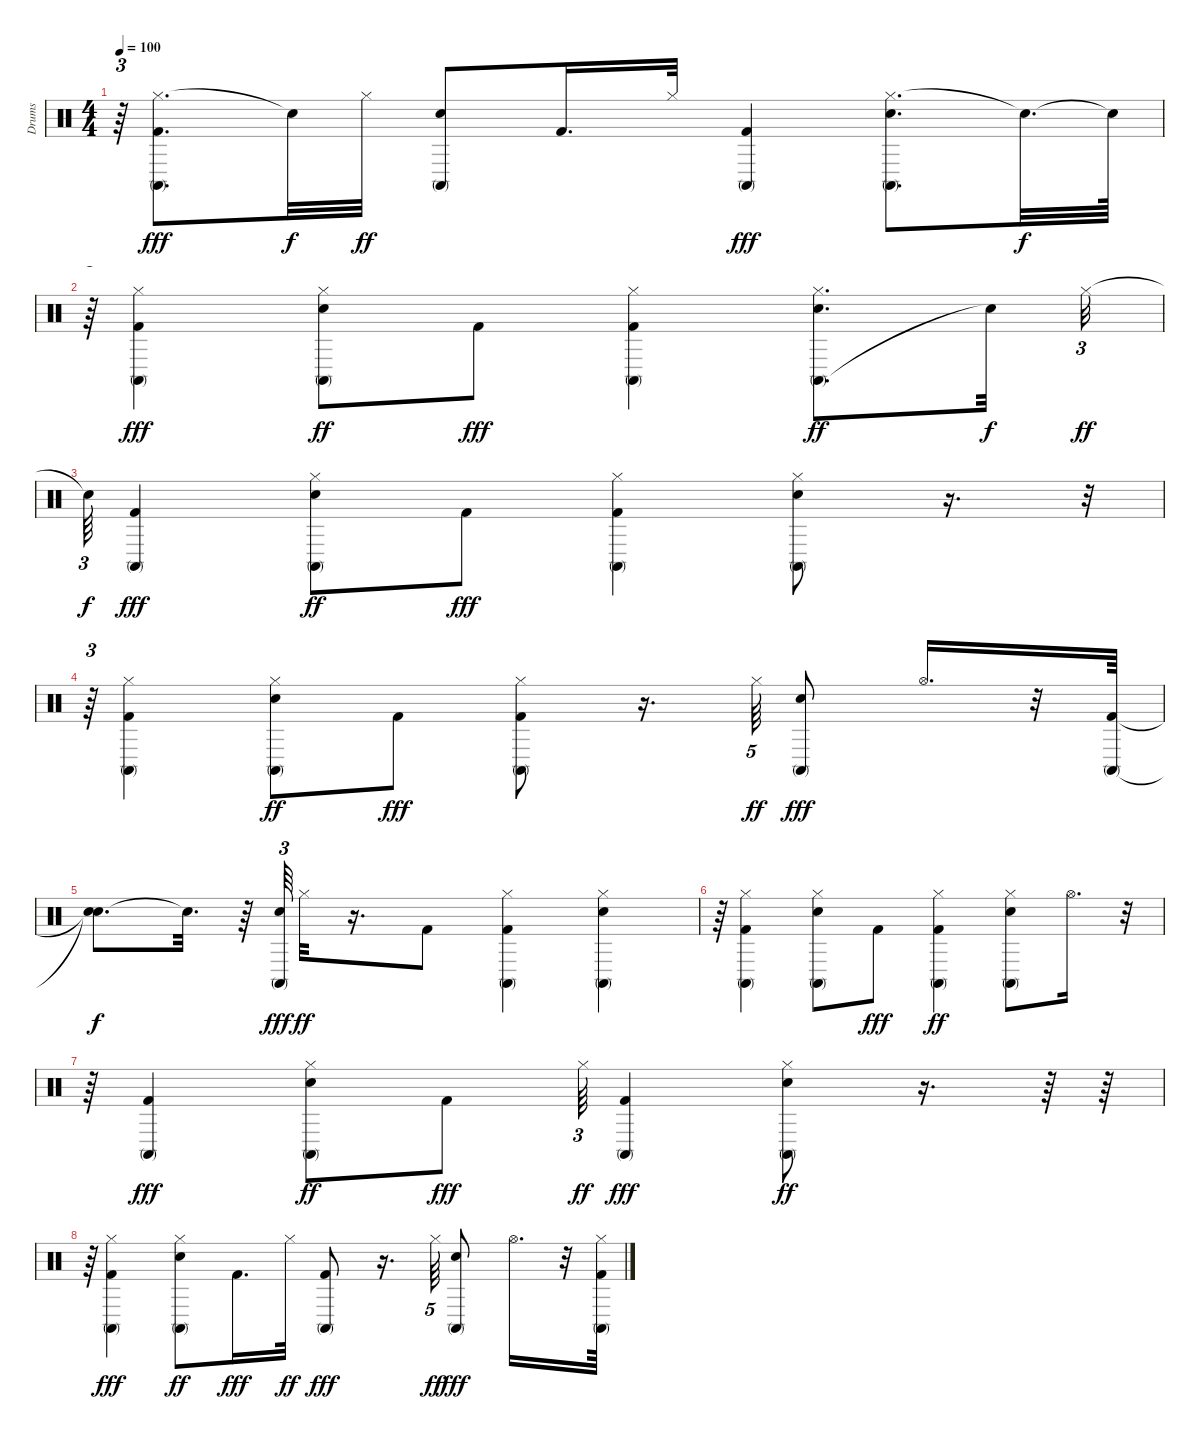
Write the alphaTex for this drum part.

\track ("Drums" "Drums") {instrument percussion}
\staff {score}
\articulation defaults
\ts (4 4)
\tempo 100
\clef neutral
\ks c
r.64{tu (3 2) dy fff} ("Hi-Hat (closed)" "Conga high (mute)" "Kick (hit) 2").8{d} "Snare (hit)"{t}.32{dy f} "Hi-Hat (closed)".32{dy ff} ("Conga high (mute)" "Snare (hit) 2").8 "Kick (hit) 2".16{d} "Hi-Hat (closed)".32 ("Conga high (mute)" "Kick (hit) 2").4{dy fff} ("Hi-Hat (closed)" "Conga high (mute)" "Snare (hit) 2").8{d} "Snare (hit)"{t}.32{d dy f} "Snare (hit)"{t}.64 |
r.64{tu (3 2)} ("Hi-Hat (closed)" "Conga high (mute)" "Kick (hit) 2").4{dy fff} ("Conga high (mute)" "Snare (hit) 2" "Hi-Hat (closed)").8{dy ff} "Kick (hit) 2".8{dy fff} ("Hi-Hat (closed)" "Conga high (mute)" "Kick (hit) 2").4 ("Conga high (mute)" "Snare (hit) 2" "Hi-Hat (closed)").8{d dy ff} "Snare (hit)"{t}.32{dy f} "Hi-Hat (closed)".32{tu (3 2) dy ff} |
"Snare (hit)"{t}.64{tu (3 2) dy f} ("Conga high (mute)" "Kick (hit) 2").4{dy fff} ("Conga high (mute)" "Snare (hit) 2" "Hi-Hat (closed)").8{dy ff} "Kick (hit) 2".8{dy fff} ("Hi-Hat (closed)" "Conga high (mute)" "Kick (hit) 2").4 ("Hi-Hat (closed)" "Conga high (mute)" "Snare (hit) 2").8 r.16{d} r.32{tu (3 2)} |
r.64{tu (3 2)} ("Hi-Hat (closed)" "Kick (hit) 2" "Conga high (mute)").4 ("Snare (hit) 2" "Conga high (mute)" "Hi-Hat (closed)").8{dy ff} "Kick (hit) 2".8{dy fff} ("Hi-Hat (closed)" "Kick (hit) 2" "Conga high (mute)").8 r.16{d} "Hi-Hat (closed)".64{tu (5 4) dy ff} ("Conga high (mute)" "Snare (hit) 2").8{dy fff} "Hi-Hat (open)".16{d} r.32 ("Conga high (mute)" "Kick (hit) 2").64 |
("Snare (hit)"{t} "Snare (hit)"{t}).8{d dy f} "Snare (hit)"{t}.32{d} r.64 ("Snare (hit) 2" "Conga high (mute)").64{tu (3 2) dy fff} "Hi-Hat (closed)".32{dy ff} r.16{d} "Kick (hit) 2".8 ("Kick (hit) 2" "Conga high (mute)" "Hi-Hat (closed)").4 ("Snare (hit) 2" "Conga high (mute)" "Hi-Hat (closed)").4 |
r.64 ("Kick (hit) 2" "Conga high (mute)" "Hi-Hat (closed)").4 ("Snare (hit) 2" "Conga high (mute)" "Hi-Hat (closed)").8 "Kick (hit) 2".8{dy fff} ("Conga high (mute)" "Kick (hit) 2" "Hi-Hat (closed)").4{dy ff} ("Snare (hit) 2" "Conga high (mute)" "Hi-Hat (closed)").8 "Hi-Hat (open)".16{d} r.32 |
r.64 ("Conga high (mute)" "Kick (hit) 2").4{dy fff} ("Snare (hit) 2" "Conga high (mute)" "Hi-Hat (closed)").8{dy ff} "Kick (hit) 2".8{dy fff} "Hi-Hat (closed)".64{tu (3 2) dy ff} ("Conga high (mute)" "Kick (hit) 2").4{dy fff} ("Snare (hit) 2" "Conga high (mute)" "Hi-Hat (closed)").8{dy ff} r.16{d} r.64 r.64 |
r.64{tu (5 4)} ("Hi-Hat (closed)" "Kick (hit) 2" "Conga high (mute)").4{dy fff} ("Snare (hit) 2" "Conga high (mute)" "Hi-Hat (closed)").8{dy ff} "Kick (hit) 2".16{d dy fff} "Hi-Hat (closed)".32{dy ff} ("Kick (hit) 2" "Conga high (mute)").8{dy fff} r.16{d} "Hi-Hat (closed)".64{tu (5 4) dy ff} ("Conga high (mute)" "Snare (hit) 2").8{dy fff} "Hi-Hat (open)".16{d} r.32 ("Hi-Hat (closed)" "Kick (hit) 2" "Conga high (mute)").64
